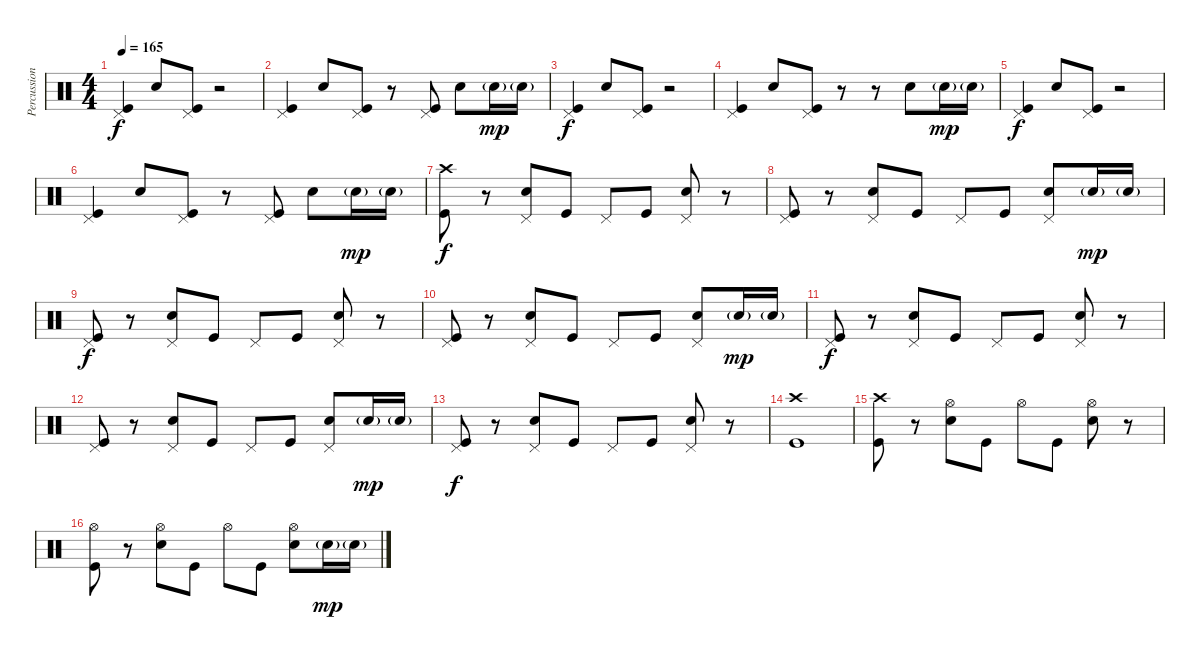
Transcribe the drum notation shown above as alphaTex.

\track ("Percussion" "Percussion") {instrument percussion}
\staff {score}
\articulation defaults
\ts (4 4)
\tempo 165
\clef neutral
\ks c
("Pedal Hi-Hat (hit)" "Kick (hit)").4{dy f} "Snare (hit) 2".8 ("Pedal Hi-Hat (hit)" "Kick (hit)").8 r.2 |
("Pedal Hi-Hat (hit)" "Kick (hit)").4 "Snare (hit) 2".8 ("Pedal Hi-Hat (hit)" "Kick (hit)").8 r.8 ("Pedal Hi-Hat (hit)" "Kick (hit)").8 "Snare (hit) 2".8 "Snare (hit) 2"{g}.16{dy mp} "Snare (hit) 2"{g}.16 |
("Pedal Hi-Hat (hit)" "Kick (hit)").4{dy f} "Snare (hit) 2".8 ("Pedal Hi-Hat (hit)" "Kick (hit)").8 r.2 |
("Pedal Hi-Hat (hit)" "Kick (hit)").4 "Snare (hit) 2".8 ("Pedal Hi-Hat (hit)" "Kick (hit)").8 r.8 r.8 "Snare (hit) 2".8 "Snare (hit) 2"{g}.16{dy mp} "Snare (hit) 2"{g}.16 |
("Pedal Hi-Hat (hit)" "Kick (hit)").4{dy f} "Snare (hit) 2".8 ("Pedal Hi-Hat (hit)" "Kick (hit)").8 r.2 |
("Pedal Hi-Hat (hit)" "Kick (hit)").4 "Snare (hit) 2".8 ("Pedal Hi-Hat (hit)" "Kick (hit)").8 r.8 ("Pedal Hi-Hat (hit)" "Kick (hit)").8 "Snare (hit) 2".8 "Snare (hit) 2"{g}.16{dy mp} "Snare (hit) 2"{g}.16 |
("Crash high (hit)" "Kick (hit)").8{dy f} r.8 ("Pedal Hi-Hat (hit)" "Snare (hit) 2").8 "Kick (hit)".8 "Pedal Hi-Hat (hit)".8 "Kick (hit)".8 ("Pedal Hi-Hat (hit)" "Snare (hit) 2").8 r.8 |
("Pedal Hi-Hat (hit)" "Kick (hit)").8 r.8 ("Pedal Hi-Hat (hit)" "Snare (hit) 2").8 "Kick (hit)".8 "Pedal Hi-Hat (hit)".8 "Kick (hit)".8 ("Pedal Hi-Hat (hit)" "Snare (hit) 2").8 "Snare (hit) 2"{g}.16{dy mp} "Snare (hit) 2"{g}.16 |
("Pedal Hi-Hat (hit)" "Kick (hit)").8{dy f} r.8 ("Pedal Hi-Hat (hit)" "Snare (hit) 2").8 "Kick (hit)".8 "Pedal Hi-Hat (hit)".8 "Kick (hit)".8 ("Pedal Hi-Hat (hit)" "Snare (hit) 2").8 r.8 |
("Pedal Hi-Hat (hit)" "Kick (hit)").8 r.8 ("Pedal Hi-Hat (hit)" "Snare (hit) 2").8 "Kick (hit)".8 "Pedal Hi-Hat (hit)".8 "Kick (hit)".8 ("Pedal Hi-Hat (hit)" "Snare (hit) 2").8 "Snare (hit) 2"{g}.16{dy mp} "Snare (hit) 2"{g}.16 |
("Pedal Hi-Hat (hit)" "Kick (hit)").8{dy f} r.8 ("Pedal Hi-Hat (hit)" "Snare (hit) 2").8 "Kick (hit)".8 "Pedal Hi-Hat (hit)".8 "Kick (hit)".8 ("Pedal Hi-Hat (hit)" "Snare (hit) 2").8 r.8 |
("Pedal Hi-Hat (hit)" "Kick (hit)").8 r.8 ("Pedal Hi-Hat (hit)" "Snare (hit) 2").8 "Kick (hit)".8 "Pedal Hi-Hat (hit)".8 "Kick (hit)".8 ("Pedal Hi-Hat (hit)" "Snare (hit) 2").8 "Snare (hit) 2"{g}.16{dy mp} "Snare (hit) 2"{g}.16 |
("Pedal Hi-Hat (hit)" "Kick (hit)").8{dy f} r.8 ("Pedal Hi-Hat (hit)" "Snare (hit) 2").8 "Kick (hit)".8 "Pedal Hi-Hat (hit)".8 "Kick (hit)".8 ("Pedal Hi-Hat (hit)" "Snare (hit) 2").8 r.8 |
("Crash high (hit)" "Kick (hit)").1 |
("Crash high (hit)" "Kick (hit)").8 r.8 ("Hi-Hat (open)" "Snare (hit) 2").8 "Kick (hit)".8 "Hi-Hat (open)".8 "Kick (hit)".8 ("Hi-Hat (open)" "Snare (hit) 2").8 r.8 |
("Hi-Hat (open)" "Kick (hit)").8 r.8 ("Hi-Hat (open)" "Snare (hit) 2").8 "Kick (hit)".8 "Hi-Hat (open)".8 "Kick (hit)".8 ("Hi-Hat (open)" "Snare (hit) 2").8 "Snare (hit) 2"{g}.16{dy mp} "Snare (hit) 2"{g}.16
